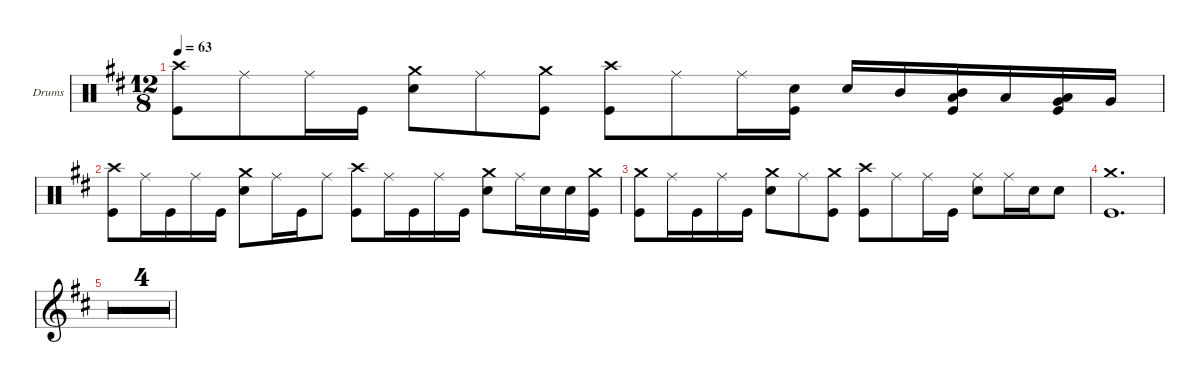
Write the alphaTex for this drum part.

\defaultSystemsLayout 4
\hideDynamics
\bracketExtendMode groupsimilarinstruments
\firstSystemTrackNameOrientation horizontal
\otherSystemsTrackNameOrientation horizontal
\track ("Batterie" "Drums") {multiBarRest instrument percussion}
\staff {score}
\articulation defaults
\ts (12 8)
\tempo 63
\clef neutral
\ks d
("Kick (hit)" "Crash high (hit)").8{dy ff} "Ride (middle)".8 "Ride (middle)".16 "Kick (hit)".16 ("Snare (hit) 2" "Crash medium (hit)").8 "Ride (middle)".8 ("Kick (hit)" "Crash medium (hit)").8 ("Kick (hit)" "Crash high (hit)").8 "Ride (middle)".8 "Ride (middle)".16 ("Kick (hit)" "Snare (hit) 2").16 "Snare (hit) 2".16 "Mid Tom (hit)".16 ("Kick (hit)" "Mid Tom (hit)" "Low Tom (hit)").16 "Low Tom (hit)".16 ("Kick (hit)" "Low Tom (hit)" "Very Low Tom (hit)").16 "Very Low Tom (hit)".16 |
("Kick (hit)" "Crash high (hit)").8 "Ride (middle)".16 "Kick (hit)".16 "Ride (middle)".16 "Kick (hit)".16 ("Snare (hit) 2" "Crash medium (hit)").8 "Ride (middle)".16 "Kick (hit)".16 "Ride (middle)".8 ("Kick (hit)" "Crash high (hit)").8 "Ride (middle)".16 "Kick (hit)".16 "Ride (middle)".16 "Kick (hit)".16 ("Snare (hit) 2" "Crash medium (hit)").8 "Ride (middle)".16 "Snare (hit) 2".16 "Snare (hit) 2".16 ("Kick (hit)" "Crash medium (hit)").16 |
("Kick (hit)" "Crash medium (hit)").8 "Ride (middle)".16 "Kick (hit)".16 "Ride (middle)".16 "Kick (hit)".16 ("Snare (hit) 2" "Crash medium (hit)").8 "Ride (middle)".8 ("Kick (hit)" "Crash medium (hit)").8 ("Kick (hit)" "Crash high (hit)").8 "Ride (middle)".8 "Ride (middle)".16 "Kick (hit)".16 ("Snare (hit) 2" "Ride (middle)").8 "Ride (middle)".16 "Snare (hit) 2".16 "Snare (hit) 2".8 |
("Kick (hit)" "Crash medium (hit)").1{d} |
\clef g2
r.1{d} |
r.1{d} |
r.1{d} |
r.1{d}
